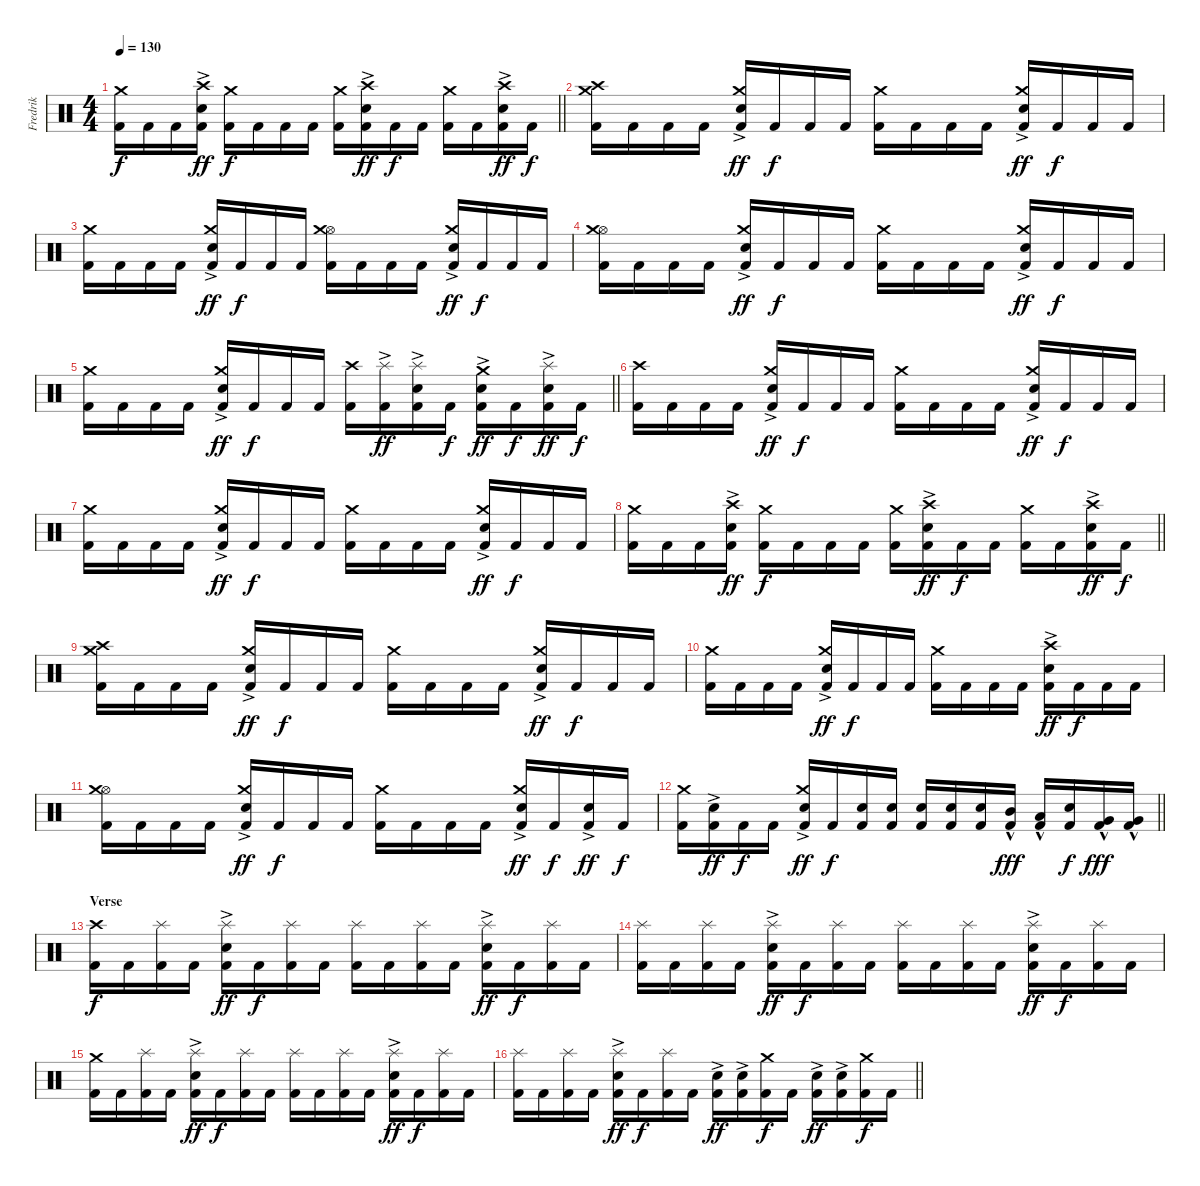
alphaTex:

\track ("Fredrik" "Fredrik") {instrument percussion}
\staff {score}
\articulation defaults
\ts (4 4)
\tempo 130
\clef neutral
\barLineRight lightlight
\ks c
("Kick (hit) 2" "Crash medium (hit)").16{dy f} "Kick (hit) 2".16 "Kick (hit) 2".16 ("Kick (hit) 2" "Snare (hit) 2"{ac} "Crash high (hit)").16{dy ff} ("Kick (hit) 2" "Crash medium (hit)").16{dy f} "Kick (hit) 2".16 "Kick (hit) 2".16 "Kick (hit) 2".16 ("Kick (hit) 2" "Crash medium (hit)").16 ("Kick (hit) 2" "Snare (hit) 2"{ac} "Crash high (hit)").16{dy ff} "Kick (hit) 2".16{dy f} "Kick (hit) 2".16 ("Kick (hit) 2" "Crash medium (hit)").16 "Kick (hit) 2".16 ("Kick (hit) 2" "Snare (hit) 2"{ac} "Crash high (hit)").16{dy ff} "Kick (hit) 2".16{dy f} |
\section ("" "")
("Kick (hit) 2" "Crash medium (hit)" "Crash high (hit)").16 "Kick (hit) 2".16 "Kick (hit) 2".16 "Kick (hit) 2".16 ("Kick (hit) 2" "Snare (hit) 2"{ac} "Crash medium (hit)").16{dy ff} "Kick (hit) 2".16{dy f} "Kick (hit) 2".16 "Kick (hit) 2".16 ("Kick (hit) 2" "Crash medium (hit)").16 "Kick (hit) 2".16 "Kick (hit) 2".16 "Kick (hit) 2".16 ("Kick (hit) 2" "Snare (hit) 2"{ac} "Crash medium (hit)").16{dy ff} "Kick (hit) 2".16{dy f} "Kick (hit) 2".16 "Kick (hit) 2".16 |
("Kick (hit) 2" "Crash medium (hit)").16 "Kick (hit) 2".16 "Kick (hit) 2".16 "Kick (hit) 2".16 ("Kick (hit) 2" "Snare (hit) 2"{ac} "Crash medium (hit)").16{dy ff} "Kick (hit) 2".16{dy f} "Kick (hit) 2".16 "Kick (hit) 2".16 ("Kick (hit) 2" "Hi-Hat (open)" "Crash medium (hit)").16 "Kick (hit) 2".16 "Kick (hit) 2".16 "Kick (hit) 2".16 ("Kick (hit) 2" "Snare (hit) 2"{ac} "Crash medium (hit)").16{dy ff} "Kick (hit) 2".16{dy f} "Kick (hit) 2".16 "Kick (hit) 2".16 |
("Kick (hit) 2" "Hi-Hat (open)" "Crash medium (hit)").16 "Kick (hit) 2".16 "Kick (hit) 2".16 "Kick (hit) 2".16 ("Kick (hit) 2" "Snare (hit) 2"{ac} "Crash medium (hit)").16{dy ff} "Kick (hit) 2".16{dy f} "Kick (hit) 2".16 "Kick (hit) 2".16 ("Kick (hit) 2" "Crash medium (hit)").16 "Kick (hit) 2".16 "Kick (hit) 2".16 "Kick (hit) 2".16 ("Kick (hit) 2" "Snare (hit) 2"{ac} "Crash medium (hit)").16{dy ff} "Kick (hit) 2".16{dy f} "Kick (hit) 2".16 "Kick (hit) 2".16 |
\barLineRight lightlight
("Kick (hit) 2" "Crash medium (hit)").16 "Kick (hit) 2".16 "Kick (hit) 2".16 "Kick (hit) 2".16 ("Kick (hit) 2" "Snare (hit) 2"{ac} "Crash medium (hit)").16{dy ff} "Kick (hit) 2".16{dy f} "Kick (hit) 2".16 "Kick (hit) 2".16 ("Kick (hit) 2" "Crash high (hit)").16 ("Kick (hit) 2" "Splash (hit)"{ac}).16{dy ff} ("Kick (hit) 2" "Snare (hit) 2"{ac} "Splash (hit)"{ac}).16 "Kick (hit) 2".16{dy f} ("Kick (hit) 2" "Snare (hit) 2"{ac} "Crash medium (hit)").16{dy ff} "Kick (hit) 2".16{dy f} ("Kick (hit) 2" "Snare (hit) 2"{ac} "Splash (hit)"{ac}).16{dy ff} "Kick (hit) 2".16{dy f} |
\section ("" "")
("Kick (hit) 2" "Crash high (hit)").16 "Kick (hit) 2".16 "Kick (hit) 2".16 "Kick (hit) 2".16 ("Kick (hit) 2" "Snare (hit) 2"{ac} "Crash medium (hit)").16{dy ff} "Kick (hit) 2".16{dy f} "Kick (hit) 2".16 "Kick (hit) 2".16 ("Kick (hit) 2" "Crash medium (hit)").16 "Kick (hit) 2".16 "Kick (hit) 2".16 "Kick (hit) 2".16 ("Kick (hit) 2" "Snare (hit) 2"{ac} "Crash medium (hit)").16{dy ff} "Kick (hit) 2".16{dy f} "Kick (hit) 2".16 "Kick (hit) 2".16 |
("Kick (hit) 2" "Crash medium (hit)").16 "Kick (hit) 2".16 "Kick (hit) 2".16 "Kick (hit) 2".16 ("Kick (hit) 2" "Snare (hit) 2"{ac} "Crash medium (hit)").16{dy ff} "Kick (hit) 2".16{dy f} "Kick (hit) 2".16 "Kick (hit) 2".16 ("Kick (hit) 2" "Crash medium (hit)").16 "Kick (hit) 2".16 "Kick (hit) 2".16 "Kick (hit) 2".16 ("Kick (hit) 2" "Snare (hit) 2"{ac} "Crash medium (hit)").16{dy ff} "Kick (hit) 2".16{dy f} "Kick (hit) 2".16 "Kick (hit) 2".16 |
\barLineRight lightlight
("Kick (hit) 2" "Crash medium (hit)").16 "Kick (hit) 2".16 "Kick (hit) 2".16 ("Kick (hit) 2" "Snare (hit) 2"{ac} "Crash high (hit)").16{dy ff} ("Kick (hit) 2" "Crash medium (hit)").16{dy f} "Kick (hit) 2".16 "Kick (hit) 2".16 "Kick (hit) 2".16 ("Kick (hit) 2" "Crash medium (hit)").16 ("Kick (hit) 2" "Snare (hit) 2"{ac} "Crash high (hit)").16{dy ff} "Kick (hit) 2".16{dy f} "Kick (hit) 2".16 ("Kick (hit) 2" "Crash medium (hit)").16 "Kick (hit) 2".16 ("Kick (hit) 2" "Snare (hit) 2"{ac} "Crash high (hit)").16{dy ff} "Kick (hit) 2".16{dy f} |
\section ("" "")
("Kick (hit) 2" "Crash medium (hit)" "Crash high (hit)").16 "Kick (hit) 2".16 "Kick (hit) 2".16 "Kick (hit) 2".16 ("Kick (hit) 2" "Snare (hit) 2"{ac} "Crash medium (hit)").16{dy ff} "Kick (hit) 2".16{dy f} "Kick (hit) 2".16 "Kick (hit) 2".16 ("Kick (hit) 2" "Crash medium (hit)").16 "Kick (hit) 2".16 "Kick (hit) 2".16 "Kick (hit) 2".16 ("Kick (hit) 2" "Snare (hit) 2"{ac} "Crash medium (hit)").16{dy ff} "Kick (hit) 2".16{dy f} "Kick (hit) 2".16 "Kick (hit) 2".16 |
("Kick (hit) 2" "Crash medium (hit)").16 "Kick (hit) 2".16 "Kick (hit) 2".16 "Kick (hit) 2".16 ("Kick (hit) 2" "Snare (hit) 2"{ac} "Crash medium (hit)").16{dy ff} "Kick (hit) 2".16{dy f} "Kick (hit) 2".16 "Kick (hit) 2".16 ("Kick (hit) 2" "Crash medium (hit)").16 "Kick (hit) 2".16 "Kick (hit) 2".16 "Kick (hit) 2".16 ("Kick (hit) 2" "Snare (hit) 2"{ac} "Crash high (hit)").16{dy ff} "Kick (hit) 2".16{dy f} "Kick (hit) 2".16 "Kick (hit) 2".16 |
("Kick (hit) 2" "Hi-Hat (open)" "Crash medium (hit)").16 "Kick (hit) 2".16 "Kick (hit) 2".16 "Kick (hit) 2".16 ("Kick (hit) 2" "Snare (hit) 2"{ac} "Crash medium (hit)").16{dy ff} "Kick (hit) 2".16{dy f} "Kick (hit) 2".16 "Kick (hit) 2".16 ("Kick (hit) 2" "Crash medium (hit)").16 "Kick (hit) 2".16 "Kick (hit) 2".16 "Kick (hit) 2".16 ("Kick (hit) 2" "Snare (hit) 2"{ac} "Crash medium (hit)").16{dy ff} "Kick (hit) 2".16{dy f} ("Kick (hit) 2" "Snare (hit) 2"{ac}).16{dy ff} "Kick (hit) 2".16{dy f} |
\barLineRight lightlight
("Kick (hit) 2" "Crash medium (hit)").16 ("Kick (hit) 2" "Snare (hit) 2"{ac}).16{dy ff} "Kick (hit) 2".16{dy f} "Kick (hit) 2".16 ("Kick (hit) 2" "Snare (hit) 2"{ac} "Crash medium (hit)").16{dy ff} "Kick (hit) 2".16{dy f} ("Kick (hit) 2" "Snare (hit) 2").16 ("Kick (hit) 2" "Snare (hit) 2").16 ("Kick (hit) 2" "Snare (hit) 2").16 ("Kick (hit) 2" "Snare (hit) 2").16 ("Kick (hit) 2" "Snare (hit) 2").16 ("Kick (hit) 2" "Mid Tom (hit)"{hac}).16{dy fff} ("Kick (hit) 2" "Low Tom (hit)"{hac}).16 ("Kick (hit) 2" "Snare (hit) 2").16{dy f} ("Kick (hit) 2" "Very Low Tom (hit)"{hac}).16{dy fff} ("Kick (hit) 2" "Very Low Tom (hit)"{hac}).16 |
\section ("" "Verse")
("Kick (hit) 2" "Crash high (hit)").16{dy f} "Kick (hit) 2".16 ("Kick (hit) 2" "Splash (hit)").16 "Kick (hit) 2".16 ("Kick (hit) 2" "Snare (hit) 2"{ac} "Splash (hit)").16{dy ff} "Kick (hit) 2".16{dy f} ("Kick (hit) 2" "Splash (hit)").16 "Kick (hit) 2".16 ("Kick (hit) 2" "Splash (hit)").16 "Kick (hit) 2".16 ("Kick (hit) 2" "Splash (hit)").16 "Kick (hit) 2".16 ("Kick (hit) 2" "Snare (hit) 2"{ac} "Splash (hit)").16{dy ff} "Kick (hit) 2".16{dy f} ("Kick (hit) 2" "Splash (hit)").16 "Kick (hit) 2".16 |
("Kick (hit) 2" "Splash (hit)").16 "Kick (hit) 2".16 ("Kick (hit) 2" "Splash (hit)").16 "Kick (hit) 2".16 ("Kick (hit) 2" "Snare (hit) 2"{ac} "Splash (hit)").16{dy ff} "Kick (hit) 2".16{dy f} ("Kick (hit) 2" "Splash (hit)").16 "Kick (hit) 2".16 ("Kick (hit) 2" "Splash (hit)").16 "Kick (hit) 2".16 ("Kick (hit) 2" "Splash (hit)").16 "Kick (hit) 2".16 ("Kick (hit) 2" "Snare (hit) 2"{ac} "Splash (hit)").16{dy ff} "Kick (hit) 2".16{dy f} ("Kick (hit) 2" "Splash (hit)").16 "Kick (hit) 2".16 |
("Kick (hit) 2" "Crash medium (hit)").16 "Kick (hit) 2".16 ("Kick (hit) 2" "Splash (hit)").16 "Kick (hit) 2".16 ("Kick (hit) 2" "Snare (hit) 2"{ac} "Splash (hit)").16{dy ff} "Kick (hit) 2".16{dy f} ("Kick (hit) 2" "Splash (hit)").16 "Kick (hit) 2".16 ("Kick (hit) 2" "Splash (hit)").16 "Kick (hit) 2".16 ("Kick (hit) 2" "Splash (hit)").16 "Kick (hit) 2".16 ("Kick (hit) 2" "Snare (hit) 2"{ac} "Splash (hit)").16{dy ff} "Kick (hit) 2".16{dy f} ("Kick (hit) 2" "Splash (hit)").16 "Kick (hit) 2".16 |
\barLineRight lightlight
("Kick (hit) 2" "Splash (hit)").16 "Kick (hit) 2".16 ("Kick (hit) 2" "Splash (hit)").16 "Kick (hit) 2".16 ("Kick (hit) 2" "Snare (hit) 2"{ac} "Splash (hit)").16{dy ff} "Kick (hit) 2".16{dy f} ("Kick (hit) 2" "Splash (hit)").16 "Kick (hit) 2".16 ("Kick (hit) 2" "Snare (hit) 2"{ac}).16{dy ff} ("Kick (hit) 2" "Snare (hit) 2"{ac}).16 ("Kick (hit) 2" "Crash medium (hit)").16{dy f} "Kick (hit) 2".16 ("Kick (hit) 2" "Snare (hit) 2"{ac}).16{dy ff} ("Kick (hit) 2" "Snare (hit) 2"{ac}).16 ("Kick (hit) 2" "Crash medium (hit)").16{dy f} "Kick (hit) 2".16
